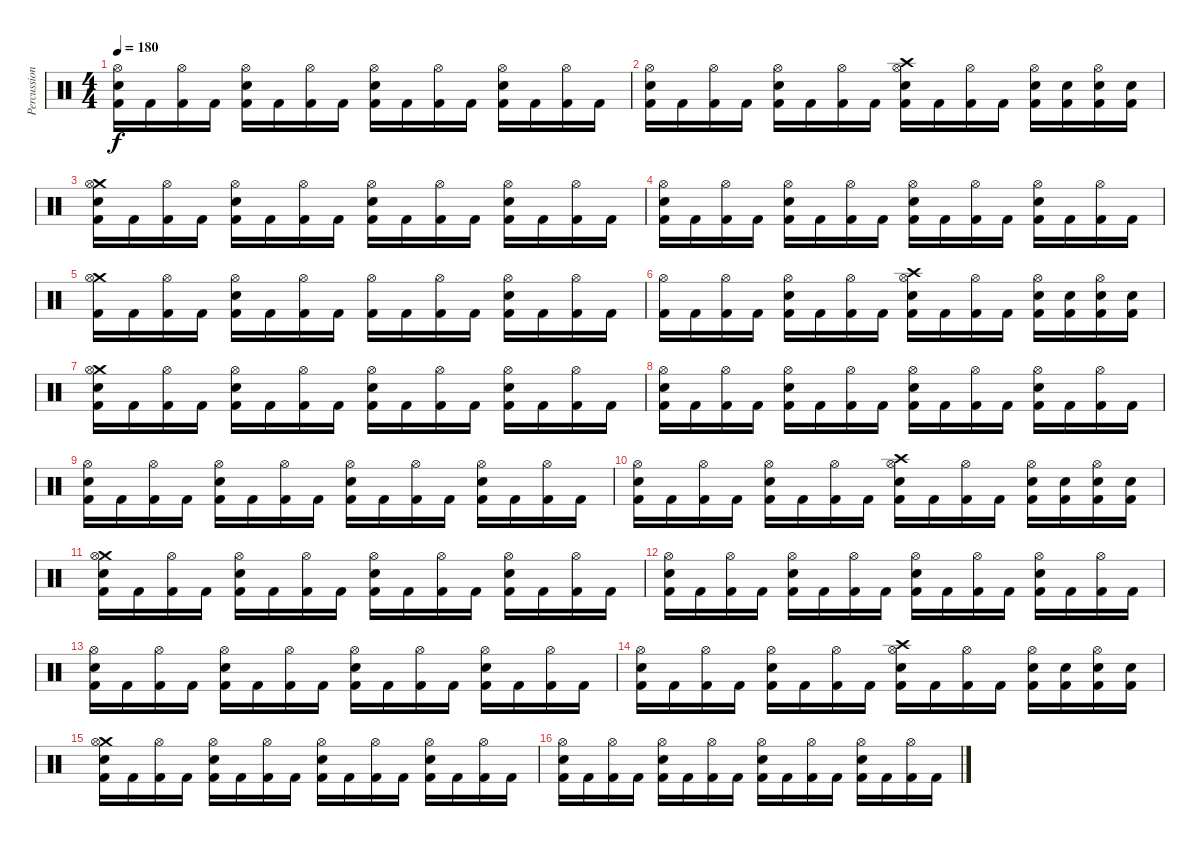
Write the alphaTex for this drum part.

\track ("Percussion" "Percussion") {instrument percussion}
\staff {score}
\articulation defaults
\ts (4 4)
\tempo 180
\clef neutral
\ks c
("Hi-Hat (open)" "Electric Snare (hit)" "Kick (hit) 2").16{dy f} "Kick (hit) 2".16 ("Hi-Hat (open)" "Kick (hit) 2").16 "Kick (hit) 2".16 ("Hi-Hat (open)" "Electric Snare (hit)" "Kick (hit) 2").16 "Kick (hit) 2".16 ("Hi-Hat (open)" "Kick (hit) 2").16 "Kick (hit) 2".16 ("Hi-Hat (open)" "Electric Snare (hit)" "Kick (hit) 2").16 "Kick (hit) 2".16 ("Hi-Hat (open)" "Kick (hit) 2").16 "Kick (hit) 2".16 ("Hi-Hat (open)" "Electric Snare (hit)" "Kick (hit) 2").16 "Kick (hit) 2".16 ("Hi-Hat (open)" "Kick (hit) 2").16 "Kick (hit) 2".16 |
("Hi-Hat (open)" "Electric Snare (hit)" "Kick (hit) 2").16 "Kick (hit) 2".16 ("Hi-Hat (open)" "Kick (hit) 2").16 "Kick (hit) 2".16 ("Hi-Hat (open)" "Electric Snare (hit)" "Kick (hit) 2").16 "Kick (hit) 2".16 ("Hi-Hat (open)" "Kick (hit) 2").16 "Kick (hit) 2".16 ("Crash high (hit)" "Hi-Hat (open)" "Electric Snare (hit)" "Kick (hit) 2").16 "Kick (hit) 2".16 ("Hi-Hat (open)" "Kick (hit) 2").16 "Kick (hit) 2".16 ("Hi-Hat (open)" "Electric Snare (hit)" "Kick (hit) 2").16 ("Electric Snare (hit)" "Kick (hit) 2").16 ("Hi-Hat (open)" "Electric Snare (hit)" "Kick (hit) 2").16 ("Electric Snare (hit)" "Kick (hit) 2").16 |
("Crash medium (hit)" "Hi-Hat (open)" "Electric Snare (hit)" "Kick (hit) 2").16 "Kick (hit) 2".16 ("Hi-Hat (open)" "Kick (hit) 2").16 "Kick (hit) 2".16 ("Hi-Hat (open)" "Electric Snare (hit)" "Kick (hit) 2").16 "Kick (hit) 2".16 ("Hi-Hat (open)" "Kick (hit) 2").16 "Kick (hit) 2".16 ("Hi-Hat (open)" "Electric Snare (hit)" "Kick (hit) 2").16 "Kick (hit) 2".16 ("Hi-Hat (open)" "Kick (hit) 2").16 "Kick (hit) 2".16 ("Hi-Hat (open)" "Electric Snare (hit)" "Kick (hit) 2").16 "Kick (hit) 2".16 ("Hi-Hat (open)" "Kick (hit) 2").16 "Kick (hit) 2".16 |
("Hi-Hat (open)" "Electric Snare (hit)" "Kick (hit) 2").16 "Kick (hit) 2".16 ("Hi-Hat (open)" "Kick (hit) 2").16 "Kick (hit) 2".16 ("Hi-Hat (open)" "Electric Snare (hit)" "Kick (hit) 2").16 "Kick (hit) 2".16 ("Hi-Hat (open)" "Kick (hit) 2").16 "Kick (hit) 2".16 ("Hi-Hat (open)" "Electric Snare (hit)" "Kick (hit) 2").16 "Kick (hit) 2".16 ("Hi-Hat (open)" "Kick (hit) 2").16 "Kick (hit) 2".16 ("Hi-Hat (open)" "Electric Snare (hit)" "Kick (hit) 2").16 "Kick (hit) 2".16 ("Hi-Hat (open)" "Kick (hit) 2").16 "Kick (hit) 2".16 |
("Crash medium (hit)" "Hi-Hat (open)" "Kick (hit) 2").16 "Kick (hit) 2".16 ("Hi-Hat (open)" "Kick (hit) 2").16 "Kick (hit) 2".16 ("Hi-Hat (open)" "Electric Snare (hit)" "Kick (hit) 2").16 "Kick (hit) 2".16 ("Hi-Hat (open)" "Kick (hit) 2").16 "Kick (hit) 2".16 ("Hi-Hat (open)" "Kick (hit) 2").16 "Kick (hit) 2".16 ("Hi-Hat (open)" "Kick (hit) 2").16 "Kick (hit) 2".16 ("Hi-Hat (open)" "Electric Snare (hit)" "Kick (hit) 2").16 "Kick (hit) 2".16 ("Hi-Hat (open)" "Kick (hit) 2").16 "Kick (hit) 2".16 |
("Hi-Hat (open)" "Kick (hit) 2").16 "Kick (hit) 2".16 ("Hi-Hat (open)" "Kick (hit) 2").16 "Kick (hit) 2".16 ("Hi-Hat (open)" "Electric Snare (hit)" "Kick (hit) 2").16 "Kick (hit) 2".16 ("Hi-Hat (open)" "Kick (hit) 2").16 "Kick (hit) 2".16 ("Crash high (hit)" "Hi-Hat (open)" "Electric Snare (hit)" "Kick (hit) 2").16 "Kick (hit) 2".16 ("Hi-Hat (open)" "Kick (hit) 2").16 "Kick (hit) 2".16 ("Hi-Hat (open)" "Electric Snare (hit)" "Kick (hit) 2").16 ("Electric Snare (hit)" "Kick (hit) 2").16 ("Hi-Hat (open)" "Electric Snare (hit)" "Kick (hit) 2").16 ("Electric Snare (hit)" "Kick (hit) 2").16 |
("Crash medium (hit)" "Hi-Hat (open)" "Electric Snare (hit)" "Kick (hit) 2").16 "Kick (hit) 2".16 ("Hi-Hat (open)" "Kick (hit) 2").16 "Kick (hit) 2".16 ("Hi-Hat (open)" "Electric Snare (hit)" "Kick (hit) 2").16 "Kick (hit) 2".16 ("Hi-Hat (open)" "Kick (hit) 2").16 "Kick (hit) 2".16 ("Hi-Hat (open)" "Electric Snare (hit)" "Kick (hit) 2").16 "Kick (hit) 2".16 ("Hi-Hat (open)" "Kick (hit) 2").16 "Kick (hit) 2".16 ("Hi-Hat (open)" "Electric Snare (hit)" "Kick (hit) 2").16 "Kick (hit) 2".16 ("Hi-Hat (open)" "Kick (hit) 2").16 "Kick (hit) 2".16 |
("Hi-Hat (open)" "Electric Snare (hit)" "Kick (hit) 2").16 "Kick (hit) 2".16 ("Hi-Hat (open)" "Kick (hit) 2").16 "Kick (hit) 2".16 ("Hi-Hat (open)" "Electric Snare (hit)" "Kick (hit) 2").16 "Kick (hit) 2".16 ("Hi-Hat (open)" "Kick (hit) 2").16 "Kick (hit) 2".16 ("Hi-Hat (open)" "Electric Snare (hit)" "Kick (hit) 2").16 "Kick (hit) 2".16 ("Hi-Hat (open)" "Kick (hit) 2").16 "Kick (hit) 2".16 ("Hi-Hat (open)" "Electric Snare (hit)" "Kick (hit) 2").16 "Kick (hit) 2".16 ("Hi-Hat (open)" "Kick (hit) 2").16 "Kick (hit) 2".16 |
("Hi-Hat (open)" "Electric Snare (hit)" "Kick (hit) 2").16 "Kick (hit) 2".16 ("Hi-Hat (open)" "Kick (hit) 2").16 "Kick (hit) 2".16 ("Hi-Hat (open)" "Electric Snare (hit)" "Kick (hit) 2").16 "Kick (hit) 2".16 ("Hi-Hat (open)" "Kick (hit) 2").16 "Kick (hit) 2".16 ("Hi-Hat (open)" "Electric Snare (hit)" "Kick (hit) 2").16 "Kick (hit) 2".16 ("Hi-Hat (open)" "Kick (hit) 2").16 "Kick (hit) 2".16 ("Hi-Hat (open)" "Electric Snare (hit)" "Kick (hit) 2").16 "Kick (hit) 2".16 ("Hi-Hat (open)" "Kick (hit) 2").16 "Kick (hit) 2".16 |
("Hi-Hat (open)" "Electric Snare (hit)" "Kick (hit) 2").16 "Kick (hit) 2".16 ("Hi-Hat (open)" "Kick (hit) 2").16 "Kick (hit) 2".16 ("Hi-Hat (open)" "Electric Snare (hit)" "Kick (hit) 2").16 "Kick (hit) 2".16 ("Hi-Hat (open)" "Kick (hit) 2").16 "Kick (hit) 2".16 ("Crash high (hit)" "Hi-Hat (open)" "Electric Snare (hit)" "Kick (hit) 2").16 "Kick (hit) 2".16 ("Hi-Hat (open)" "Kick (hit) 2").16 "Kick (hit) 2".16 ("Hi-Hat (open)" "Electric Snare (hit)" "Kick (hit) 2").16 ("Electric Snare (hit)" "Kick (hit) 2").16 ("Hi-Hat (open)" "Electric Snare (hit)" "Kick (hit) 2").16 ("Electric Snare (hit)" "Kick (hit) 2").16 |
("Crash medium (hit)" "Hi-Hat (open)" "Electric Snare (hit)" "Kick (hit) 2").16 "Kick (hit) 2".16 ("Hi-Hat (open)" "Kick (hit) 2").16 "Kick (hit) 2".16 ("Hi-Hat (open)" "Electric Snare (hit)" "Kick (hit) 2").16 "Kick (hit) 2".16 ("Hi-Hat (open)" "Kick (hit) 2").16 "Kick (hit) 2".16 ("Hi-Hat (open)" "Electric Snare (hit)" "Kick (hit) 2").16 "Kick (hit) 2".16 ("Hi-Hat (open)" "Kick (hit) 2").16 "Kick (hit) 2".16 ("Hi-Hat (open)" "Electric Snare (hit)" "Kick (hit) 2").16 "Kick (hit) 2".16 ("Hi-Hat (open)" "Kick (hit) 2").16 "Kick (hit) 2".16 |
("Hi-Hat (open)" "Electric Snare (hit)" "Kick (hit) 2").16 "Kick (hit) 2".16 ("Hi-Hat (open)" "Kick (hit) 2").16 "Kick (hit) 2".16 ("Hi-Hat (open)" "Electric Snare (hit)" "Kick (hit) 2").16 "Kick (hit) 2".16 ("Hi-Hat (open)" "Kick (hit) 2").16 "Kick (hit) 2".16 ("Hi-Hat (open)" "Electric Snare (hit)" "Kick (hit) 2").16 "Kick (hit) 2".16 ("Hi-Hat (open)" "Kick (hit) 2").16 "Kick (hit) 2".16 ("Hi-Hat (open)" "Electric Snare (hit)" "Kick (hit) 2").16 "Kick (hit) 2".16 ("Hi-Hat (open)" "Kick (hit) 2").16 "Kick (hit) 2".16 |
("Hi-Hat (open)" "Electric Snare (hit)" "Kick (hit) 2").16 "Kick (hit) 2".16 ("Hi-Hat (open)" "Kick (hit) 2").16 "Kick (hit) 2".16 ("Hi-Hat (open)" "Electric Snare (hit)" "Kick (hit) 2").16 "Kick (hit) 2".16 ("Hi-Hat (open)" "Kick (hit) 2").16 "Kick (hit) 2".16 ("Hi-Hat (open)" "Electric Snare (hit)" "Kick (hit) 2").16 "Kick (hit) 2".16 ("Hi-Hat (open)" "Kick (hit) 2").16 "Kick (hit) 2".16 ("Hi-Hat (open)" "Electric Snare (hit)" "Kick (hit) 2").16 "Kick (hit) 2".16 ("Hi-Hat (open)" "Kick (hit) 2").16 "Kick (hit) 2".16 |
("Hi-Hat (open)" "Electric Snare (hit)" "Kick (hit) 2").16 "Kick (hit) 2".16 ("Hi-Hat (open)" "Kick (hit) 2").16 "Kick (hit) 2".16 ("Hi-Hat (open)" "Electric Snare (hit)" "Kick (hit) 2").16 "Kick (hit) 2".16 ("Hi-Hat (open)" "Kick (hit) 2").16 "Kick (hit) 2".16 ("Crash high (hit)" "Hi-Hat (open)" "Electric Snare (hit)" "Kick (hit) 2").16 "Kick (hit) 2".16 ("Hi-Hat (open)" "Kick (hit) 2").16 "Kick (hit) 2".16 ("Hi-Hat (open)" "Electric Snare (hit)" "Kick (hit) 2").16 ("Electric Snare (hit)" "Kick (hit) 2").16 ("Hi-Hat (open)" "Electric Snare (hit)" "Kick (hit) 2").16 ("Electric Snare (hit)" "Kick (hit) 2").16 |
("Crash medium (hit)" "Hi-Hat (open)" "Electric Snare (hit)" "Kick (hit) 2").16 "Kick (hit) 2".16 ("Hi-Hat (open)" "Kick (hit) 2").16 "Kick (hit) 2".16 ("Hi-Hat (open)" "Electric Snare (hit)" "Kick (hit) 2").16 "Kick (hit) 2".16 ("Hi-Hat (open)" "Kick (hit) 2").16 "Kick (hit) 2".16 ("Hi-Hat (open)" "Electric Snare (hit)" "Kick (hit) 2").16 "Kick (hit) 2".16 ("Hi-Hat (open)" "Kick (hit) 2").16 "Kick (hit) 2".16 ("Hi-Hat (open)" "Electric Snare (hit)" "Kick (hit) 2").16 "Kick (hit) 2".16 ("Hi-Hat (open)" "Kick (hit) 2").16 "Kick (hit) 2".16 |
("Hi-Hat (open)" "Electric Snare (hit)" "Kick (hit) 2").16 "Kick (hit) 2".16 ("Hi-Hat (open)" "Kick (hit) 2").16 "Kick (hit) 2".16 ("Hi-Hat (open)" "Electric Snare (hit)" "Kick (hit) 2").16 "Kick (hit) 2".16 ("Hi-Hat (open)" "Kick (hit) 2").16 "Kick (hit) 2".16 ("Hi-Hat (open)" "Electric Snare (hit)" "Kick (hit) 2").16 "Kick (hit) 2".16 ("Hi-Hat (open)" "Kick (hit) 2").16 "Kick (hit) 2".16 ("Hi-Hat (open)" "Electric Snare (hit)" "Kick (hit) 2").16 "Kick (hit) 2".16 ("Hi-Hat (open)" "Kick (hit) 2").16 "Kick (hit) 2".16
